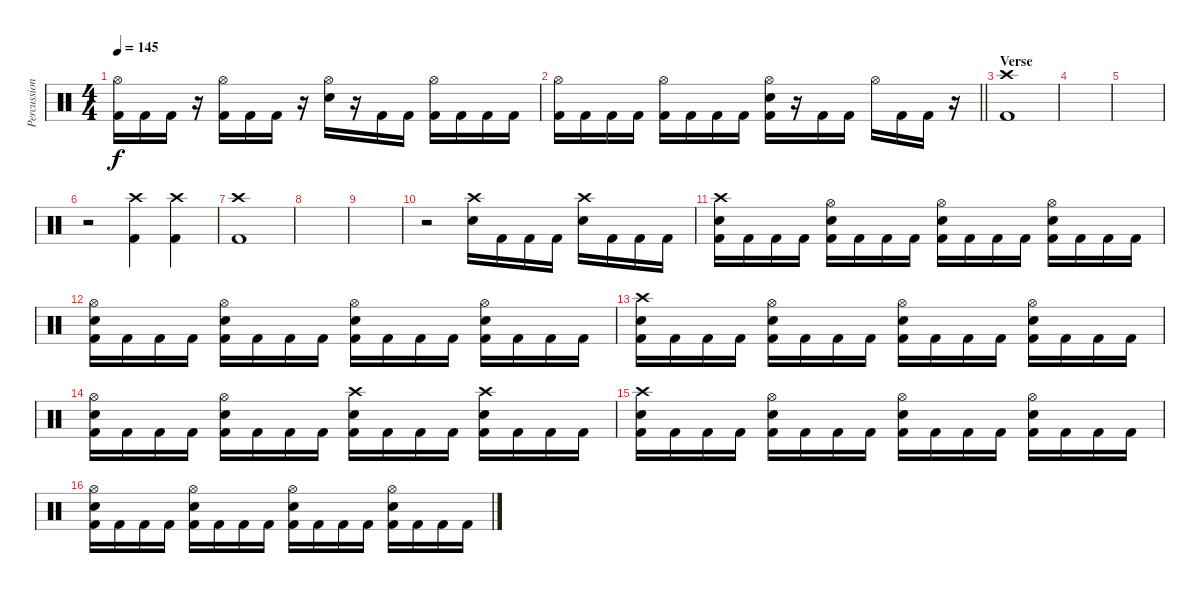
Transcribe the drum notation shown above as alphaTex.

\track ("Percussion" "Percussion") {instrument percussion}
\staff {score}
\articulation defaults
\ts (4 4)
\tempo 145
\clef neutral
\ks aminor
("Hi-Hat (open)" "Kick (hit) 2").16{dy f} "Kick (hit) 2".16 "Kick (hit) 2".16 r.16 ("Hi-Hat (open)" "Kick (hit) 2").16 "Kick (hit) 2".16 "Kick (hit) 2".16 r.16 ("Hi-Hat (open)" "Electric Snare (hit)").16 r.16 "Kick (hit) 2".16 "Kick (hit) 2".16 ("Hi-Hat (open)" "Kick (hit) 2").16 "Kick (hit) 2".16 "Kick (hit) 2".16 "Kick (hit) 2".16 |
\barLineRight lightlight
("Hi-Hat (open)" "Kick (hit) 2").16 "Kick (hit) 2".16 "Kick (hit) 2".16 "Kick (hit) 2".16 ("Hi-Hat (open)" "Kick (hit) 2").16 "Kick (hit) 2".16 "Kick (hit) 2".16 "Kick (hit) 2".16 ("Hi-Hat (open)" "Electric Snare (hit)" "Kick (hit) 2").16 r.16 "Kick (hit) 2".16 "Kick (hit) 2".16 "Hi-Hat (open)".16 "Kick (hit) 2".16 "Kick (hit) 2".16 r.16 |
\section ("" "Verse")
("Crash high (hit)" "Kick (hit) 2").1 |
|
|
r.2 ("Crash high (hit)" "Kick (hit) 2").4 ("Crash high (hit)" "Kick (hit) 2").4 |
("Crash high (hit)" "Kick (hit) 2").1 |
|
|
r.2 ("Crash high (hit)" "Electric Snare (hit)").16 "Kick (hit) 2".16 "Kick (hit) 2".16 "Kick (hit) 2".16 ("Crash high (hit)" "Electric Snare (hit)").16 "Kick (hit) 2".16 "Kick (hit) 2".16 "Kick (hit) 2".16 |
("Crash high (hit)" "Electric Snare (hit)" "Kick (hit) 2").16 "Kick (hit) 2".16 "Kick (hit) 2".16 "Kick (hit) 2".16 ("Hi-Hat (open)" "Electric Snare (hit)" "Kick (hit) 2").16 "Kick (hit) 2".16 "Kick (hit) 2".16 "Kick (hit) 2".16 ("Hi-Hat (open)" "Electric Snare (hit)" "Kick (hit) 2").16 "Kick (hit) 2".16 "Kick (hit) 2".16 "Kick (hit) 2".16 ("Hi-Hat (open)" "Electric Snare (hit)" "Kick (hit) 2").16 "Kick (hit) 2".16 "Kick (hit) 2".16 "Kick (hit) 2".16 |
("Hi-Hat (open)" "Electric Snare (hit)" "Kick (hit) 2").16 "Kick (hit) 2".16 "Kick (hit) 2".16 "Kick (hit) 2".16 ("Hi-Hat (open)" "Electric Snare (hit)" "Kick (hit) 2").16 "Kick (hit) 2".16 "Kick (hit) 2".16 "Kick (hit) 2".16 ("Hi-Hat (open)" "Electric Snare (hit)" "Kick (hit) 2").16 "Kick (hit) 2".16 "Kick (hit) 2".16 "Kick (hit) 2".16 ("Hi-Hat (open)" "Electric Snare (hit)" "Kick (hit) 2").16 "Kick (hit) 2".16 "Kick (hit) 2".16 "Kick (hit) 2".16 |
("Crash high (hit)" "Electric Snare (hit)" "Kick (hit) 2").16 "Kick (hit) 2".16 "Kick (hit) 2".16 "Kick (hit) 2".16 ("Hi-Hat (open)" "Electric Snare (hit)" "Kick (hit) 2").16 "Kick (hit) 2".16 "Kick (hit) 2".16 "Kick (hit) 2".16 ("Hi-Hat (open)" "Electric Snare (hit)" "Kick (hit) 2").16 "Kick (hit) 2".16 "Kick (hit) 2".16 "Kick (hit) 2".16 ("Hi-Hat (open)" "Electric Snare (hit)" "Kick (hit) 2").16 "Kick (hit) 2".16 "Kick (hit) 2".16 "Kick (hit) 2".16 |
("Hi-Hat (open)" "Electric Snare (hit)" "Kick (hit) 2").16 "Kick (hit) 2".16 "Kick (hit) 2".16 "Kick (hit) 2".16 ("Hi-Hat (open)" "Electric Snare (hit)" "Kick (hit) 2").16 "Kick (hit) 2".16 "Kick (hit) 2".16 "Kick (hit) 2".16 ("Crash high (hit)" "Electric Snare (hit)" "Kick (hit) 2").16 "Kick (hit) 2".16 "Kick (hit) 2".16 "Kick (hit) 2".16 ("Crash high (hit)" "Electric Snare (hit)" "Kick (hit) 2").16 "Kick (hit) 2".16 "Kick (hit) 2".16 "Kick (hit) 2".16 |
("Crash high (hit)" "Electric Snare (hit)" "Kick (hit) 2").16 "Kick (hit) 2".16 "Kick (hit) 2".16 "Kick (hit) 2".16 ("Hi-Hat (open)" "Electric Snare (hit)" "Kick (hit) 2").16 "Kick (hit) 2".16 "Kick (hit) 2".16 "Kick (hit) 2".16 ("Hi-Hat (open)" "Electric Snare (hit)" "Kick (hit) 2").16 "Kick (hit) 2".16 "Kick (hit) 2".16 "Kick (hit) 2".16 ("Hi-Hat (open)" "Electric Snare (hit)" "Kick (hit) 2").16 "Kick (hit) 2".16 "Kick (hit) 2".16 "Kick (hit) 2".16 |
("Hi-Hat (open)" "Electric Snare (hit)" "Kick (hit) 2").16 "Kick (hit) 2".16 "Kick (hit) 2".16 "Kick (hit) 2".16 ("Hi-Hat (open)" "Electric Snare (hit)" "Kick (hit) 2").16 "Kick (hit) 2".16 "Kick (hit) 2".16 "Kick (hit) 2".16 ("Hi-Hat (open)" "Electric Snare (hit)" "Kick (hit) 2").16 "Kick (hit) 2".16 "Kick (hit) 2".16 "Kick (hit) 2".16 ("Hi-Hat (open)" "Electric Snare (hit)" "Kick (hit) 2").16 "Kick (hit) 2".16 "Kick (hit) 2".16 "Kick (hit) 2".16
